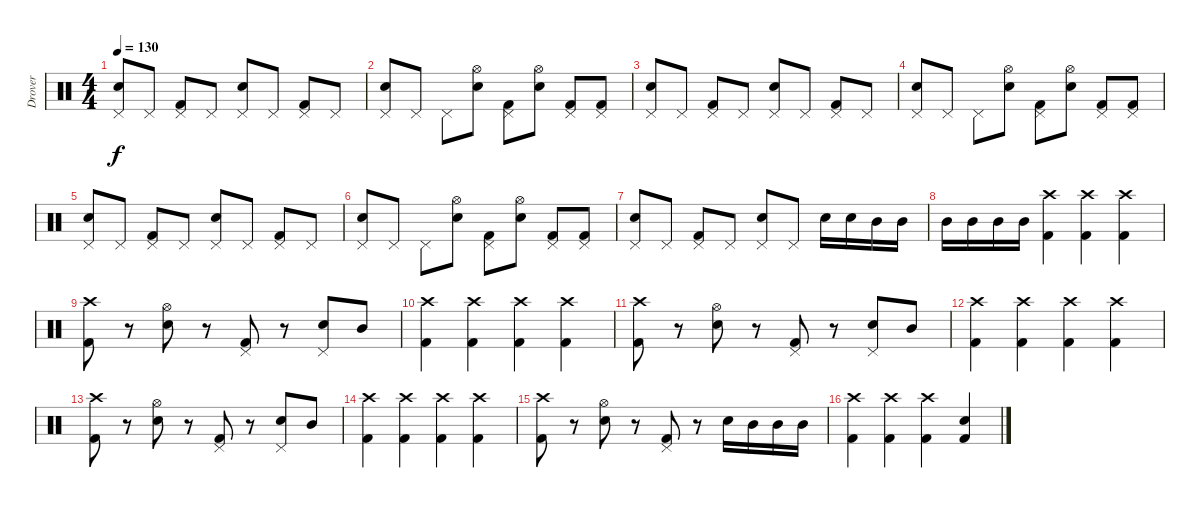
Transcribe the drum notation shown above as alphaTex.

\track ("Drover" "Drover") {instrument percussion}
\staff {score}
\articulation defaults
\ts (4 4)
\tempo 130
\clef neutral
\ks c
("Electric Snare (hit)" "Pedal Hi-Hat (hit)").8{dy f} "Pedal Hi-Hat (hit)".8 ("Pedal Hi-Hat (hit)" "Kick (hit) 2").8 "Pedal Hi-Hat (hit)".8 ("Pedal Hi-Hat (hit)" "Electric Snare (hit)").8 "Pedal Hi-Hat (hit)".8 ("Pedal Hi-Hat (hit)" "Kick (hit) 2").8 "Pedal Hi-Hat (hit)".8 |
("Pedal Hi-Hat (hit)" "Electric Snare (hit)").8 "Pedal Hi-Hat (hit)".8 "Pedal Hi-Hat (hit)".8 ("Hi-Hat (open)" "Electric Snare (hit)").8 ("Kick (hit) 2" "Pedal Hi-Hat (hit)").8 ("Hi-Hat (open)" "Electric Snare (hit)").8 ("Kick (hit) 2" "Pedal Hi-Hat (hit)").8 ("Kick (hit) 2" "Pedal Hi-Hat (hit)").8 |
("Electric Snare (hit)" "Pedal Hi-Hat (hit)").8 "Pedal Hi-Hat (hit)".8 ("Pedal Hi-Hat (hit)" "Kick (hit) 2").8 "Pedal Hi-Hat (hit)".8 ("Pedal Hi-Hat (hit)" "Electric Snare (hit)").8 "Pedal Hi-Hat (hit)".8 ("Pedal Hi-Hat (hit)" "Kick (hit) 2").8 "Pedal Hi-Hat (hit)".8 |
("Pedal Hi-Hat (hit)" "Electric Snare (hit)").8 "Pedal Hi-Hat (hit)".8 "Pedal Hi-Hat (hit)".8 ("Hi-Hat (open)" "Electric Snare (hit)").8 ("Kick (hit) 2" "Pedal Hi-Hat (hit)").8 ("Hi-Hat (open)" "Electric Snare (hit)").8 ("Kick (hit) 2" "Pedal Hi-Hat (hit)").8 ("Kick (hit) 2" "Pedal Hi-Hat (hit)").8 |
("Electric Snare (hit)" "Pedal Hi-Hat (hit)").8 "Pedal Hi-Hat (hit)".8 ("Pedal Hi-Hat (hit)" "Kick (hit) 2").8 "Pedal Hi-Hat (hit)".8 ("Pedal Hi-Hat (hit)" "Electric Snare (hit)").8 "Pedal Hi-Hat (hit)".8 ("Pedal Hi-Hat (hit)" "Kick (hit) 2").8 "Pedal Hi-Hat (hit)".8 |
("Pedal Hi-Hat (hit)" "Electric Snare (hit)").8 "Pedal Hi-Hat (hit)".8 "Pedal Hi-Hat (hit)".8 ("Hi-Hat (open)" "Electric Snare (hit)").8 ("Kick (hit) 2" "Pedal Hi-Hat (hit)").8 ("Hi-Hat (open)" "Electric Snare (hit)").8 ("Kick (hit) 2" "Pedal Hi-Hat (hit)").8 ("Kick (hit) 2" "Pedal Hi-Hat (hit)").8 |
("Electric Snare (hit)" "Pedal Hi-Hat (hit)").8 "Pedal Hi-Hat (hit)".8 ("Pedal Hi-Hat (hit)" "Kick (hit) 2").8 "Pedal Hi-Hat (hit)".8 ("Pedal Hi-Hat (hit)" "Electric Snare (hit)").8 "Pedal Hi-Hat (hit)".8 "Electric Snare (hit)".16 "Snare (hit) 2".16 "Mid Tom (hit)".16 "Mid Tom (hit)".16 |
"Mid Tom (hit)".16 "Mid Tom (hit)".16 "Mid Tom (hit)".16 "Mid Tom (hit)".16 ("Kick (hit) 2" "Crash high (hit)").4 ("Kick (hit) 2" "Crash high (hit)").4 ("Kick (hit) 2" "Crash high (hit)").4 |
("Crash high (hit)" "Kick (hit) 2").8 r.8 ("Electric Snare (hit)" "Hi-Hat (open)").8 r.8 ("Kick (hit) 2" "Pedal Hi-Hat (hit)").8 r.8 ("Electric Snare (hit)" "Pedal Hi-Hat (hit)").8 "Mid Tom (hit)".8 |
("Kick (hit) 2" "Crash high (hit)").4 ("Kick (hit) 2" "Crash high (hit)").4 ("Kick (hit) 2" "Crash high (hit)").4 ("Kick (hit) 2" "Crash high (hit)").4 |
("Crash high (hit)" "Kick (hit) 2").8 r.8 ("Electric Snare (hit)" "Hi-Hat (open)").8 r.8 ("Kick (hit) 2" "Pedal Hi-Hat (hit)").8 r.8 ("Electric Snare (hit)" "Pedal Hi-Hat (hit)").8 "Mid Tom (hit)".8 |
("Kick (hit) 2" "Crash high (hit)").4 ("Kick (hit) 2" "Crash high (hit)").4 ("Kick (hit) 2" "Crash high (hit)").4 ("Kick (hit) 2" "Crash high (hit)").4 |
("Crash high (hit)" "Kick (hit) 2").8 r.8 ("Electric Snare (hit)" "Hi-Hat (open)").8 r.8 ("Kick (hit) 2" "Pedal Hi-Hat (hit)").8 r.8 ("Electric Snare (hit)" "Pedal Hi-Hat (hit)").8 "Mid Tom (hit)".8 |
("Kick (hit) 2" "Crash high (hit)").4 ("Kick (hit) 2" "Crash high (hit)").4 ("Kick (hit) 2" "Crash high (hit)").4 ("Kick (hit) 2" "Crash high (hit)").4 |
("Crash high (hit)" "Kick (hit) 2").8 r.8 ("Electric Snare (hit)" "Hi-Hat (open)").8 r.8 ("Kick (hit) 2" "Pedal Hi-Hat (hit)").8 r.8 "Snare (hit) 2".16 "Mid Tom (hit)".16 "Mid Tom (hit)".16 "Mid Tom (hit)".16 |
("Kick (hit) 2" "Crash high (hit)").4 ("Kick (hit) 2" "Crash high (hit)").4 ("Kick (hit) 2" "Crash high (hit)").4 ("Electric Snare (hit)" "Kick (hit) 2").4
